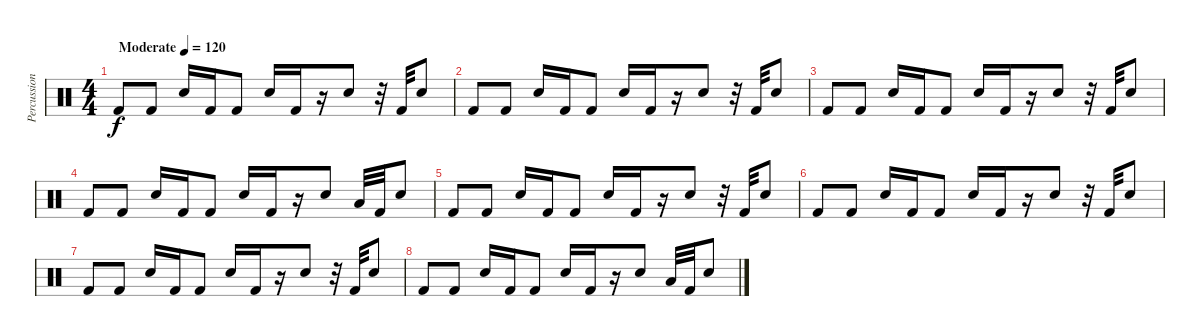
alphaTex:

\track ("Percussion" "Percussion") {instrument percussion}
\staff {score}
\articulation defaults
\ts (4 4)
\tempo (120 "Moderate")
\clef neutral
\ks c "Kick (hit) 2".8{dy f} "Kick (hit) 2".8 "Electric Snare (hit)".16 "Kick (hit) 2".16 "Kick (hit) 2".8 "Electric Snare (hit)".16 "Kick (hit) 2".16
r.16 "Electric Snare (hit)".8 r.32 "Kick (hit) 2".32 "Electric Snare (hit)".8 |
"Kick (hit) 2".8 "Kick (hit) 2".8 "Electric Snare (hit)".16 "Kick (hit) 2".16 "Kick (hit) 2".8 "Electric Snare (hit)".16 "Kick (hit) 2".16 r.16 "Electric Snare (hit)".8 r.32 "Kick (hit) 2".32 "Electric Snare (hit)".8 |
"Kick (hit) 2".8 "Kick (hit) 2".8 "Electric Snare (hit)".16 "Kick (hit) 2".16 "Kick (hit) 2".8 "Electric Snare (hit)".16 "Kick (hit) 2".16 r.16 "Electric Snare (hit)".8 r.32 "Kick (hit) 2".32 "Electric Snare (hit)".8 |
"Kick (hit) 2".8 "Kick (hit) 2".8 "Electric Snare (hit)".16 "Kick (hit) 2".16 "Kick (hit) 2".8 "Electric Snare (hit)".16 "Kick (hit) 2".16 r.16 "Electric Snare (hit)".8 "Low Tom (hit)".32 "Kick (hit) 2".32 "Electric Snare (hit)".8 |
"Kick (hit) 2".8 "Kick (hit) 2".8 "Electric Snare (hit)".16 "Kick (hit) 2".16 "Kick (hit) 2".8 "Electric Snare (hit)".16 "Kick (hit) 2".16 r.16 "Electric Snare (hit)".8 r.32 "Kick (hit) 2".32 "Electric Snare (hit)".8 |
"Kick (hit) 2".8 "Kick (hit) 2".8 "Electric Snare (hit)".16 "Kick (hit) 2".16 "Kick (hit) 2".8 "Electric Snare (hit)".16 "Kick (hit) 2".16 r.16 "Electric Snare (hit)".8 r.32 "Kick (hit) 2".32 "Electric Snare (hit)".8 |
"Kick (hit) 2".8 "Kick (hit) 2".8 "Electric Snare (hit)".16 "Kick (hit) 2".16 "Kick (hit) 2".8 "Electric Snare (hit)".16 "Kick (hit) 2".16 r.16 "Electric Snare (hit)".8 r.32 "Kick (hit) 2".32 "Electric Snare (hit)".8 |
"Kick (hit) 2".8 "Kick (hit) 2".8 "Electric Snare (hit)".16 "Kick (hit) 2".16 "Kick (hit) 2".8 "Electric Snare (hit)".16 "Kick (hit) 2".16 r.16 "Electric Snare (hit)".8 "Low Tom (hit)".32 "Kick (hit) 2".32 "Electric Snare (hit)".8
